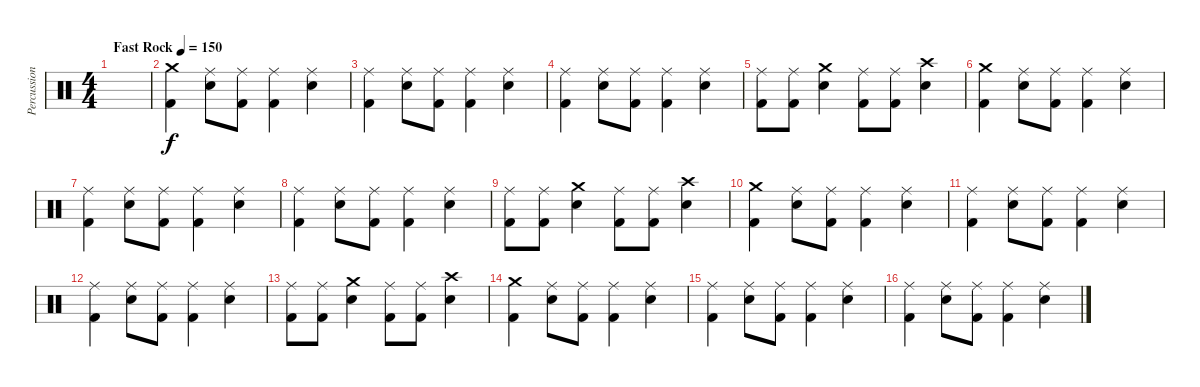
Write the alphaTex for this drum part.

\track ("Percussion" "Percussion") {instrument percussion}
\staff {score}
\articulation defaults
\ts (4 4)
\tempo (150 "Fast Rock")
\clef neutral
\ks c
|
("Crash medium (hit)" "Kick (hit) 2").4 ("Ride (middle)" "Snare (hit) 2").8 ("Ride (middle)" "Kick (hit) 2").8 ("Ride (middle)" "Kick (hit) 2").4 ("Ride (middle)" "Snare (hit) 2").4 |
("Ride (middle)" "Kick (hit) 2").4 ("Ride (middle)" "Snare (hit) 2").8 ("Ride (middle)" "Kick (hit) 2").8 ("Ride (middle)" "Kick (hit) 2").4 ("Ride (middle)" "Snare (hit) 2").4 |
("Ride (middle)" "Kick (hit) 2").4 ("Ride (middle)" "Snare (hit) 2").8 ("Ride (middle)" "Kick (hit) 2").8 ("Ride (middle)" "Kick (hit) 2").4 ("Ride (middle)" "Snare (hit) 2").4 |
("Ride (middle)" "Kick (hit) 2").8 ("Ride (middle)" "Kick (hit) 2").8 ("Crash medium (hit)" "Snare (hit) 2").4 ("Ride (middle)" "Kick (hit) 2").8 ("Ride (middle)" "Kick (hit) 2").8 ("Crash high (hit)" "Snare (hit) 2").4 |
("Crash medium (hit)" "Kick (hit) 2").4 ("Ride (middle)" "Snare (hit) 2").8 ("Ride (middle)" "Kick (hit) 2").8 ("Ride (middle)" "Kick (hit) 2").4 ("Ride (middle)" "Snare (hit) 2").4 |
("Ride (middle)" "Kick (hit) 2").4 ("Ride (middle)" "Snare (hit) 2").8 ("Ride (middle)" "Kick (hit) 2").8 ("Ride (middle)" "Kick (hit) 2").4 ("Ride (middle)" "Snare (hit) 2").4 |
("Ride (middle)" "Kick (hit) 2").4 ("Ride (middle)" "Snare (hit) 2").8 ("Ride (middle)" "Kick (hit) 2").8 ("Ride (middle)" "Kick (hit) 2").4 ("Ride (middle)" "Snare (hit) 2").4 |
("Ride (middle)" "Kick (hit) 2").8 ("Ride (middle)" "Kick (hit) 2").8 ("Crash medium (hit)" "Snare (hit) 2").4 ("Ride (middle)" "Kick (hit) 2").8 ("Ride (middle)" "Kick (hit) 2").8 ("Crash high (hit)" "Snare (hit) 2").4 |
("Crash medium (hit)" "Kick (hit) 2").4 ("Ride (middle)" "Snare (hit) 2").8 ("Ride (middle)" "Kick (hit) 2").8 ("Ride (middle)" "Kick (hit) 2").4 ("Ride (middle)" "Snare (hit) 2").4 |
("Ride (middle)" "Kick (hit) 2").4 ("Ride (middle)" "Snare (hit) 2").8 ("Ride (middle)" "Kick (hit) 2").8 ("Ride (middle)" "Kick (hit) 2").4 ("Ride (middle)" "Snare (hit) 2").4 |
("Ride (middle)" "Kick (hit) 2").4 ("Ride (middle)" "Snare (hit) 2").8 ("Ride (middle)" "Kick (hit) 2").8 ("Ride (middle)" "Kick (hit) 2").4 ("Ride (middle)" "Snare (hit) 2").4 |
("Ride (middle)" "Kick (hit) 2").8 ("Ride (middle)" "Kick (hit) 2").8 ("Crash medium (hit)" "Snare (hit) 2").4 ("Ride (middle)" "Kick (hit) 2").8 ("Ride (middle)" "Kick (hit) 2").8 ("Crash high (hit)" "Snare (hit) 2").4 |
("Crash medium (hit)" "Kick (hit) 2").4 ("Ride (middle)" "Snare (hit) 2").8 ("Ride (middle)" "Kick (hit) 2").8 ("Ride (middle)" "Kick (hit) 2").4 ("Ride (middle)" "Snare (hit) 2").4 |
("Ride (middle)" "Kick (hit) 2").4 ("Ride (middle)" "Snare (hit) 2").8 ("Ride (middle)" "Kick (hit) 2").8 ("Ride (middle)" "Kick (hit) 2").4 ("Ride (middle)" "Snare (hit) 2").4 |
("Ride (middle)" "Kick (hit) 2").4 ("Ride (middle)" "Snare (hit) 2").8 ("Ride (middle)" "Kick (hit) 2").8 ("Ride (middle)" "Kick (hit) 2").4 ("Ride (middle)" "Snare (hit) 2").4
